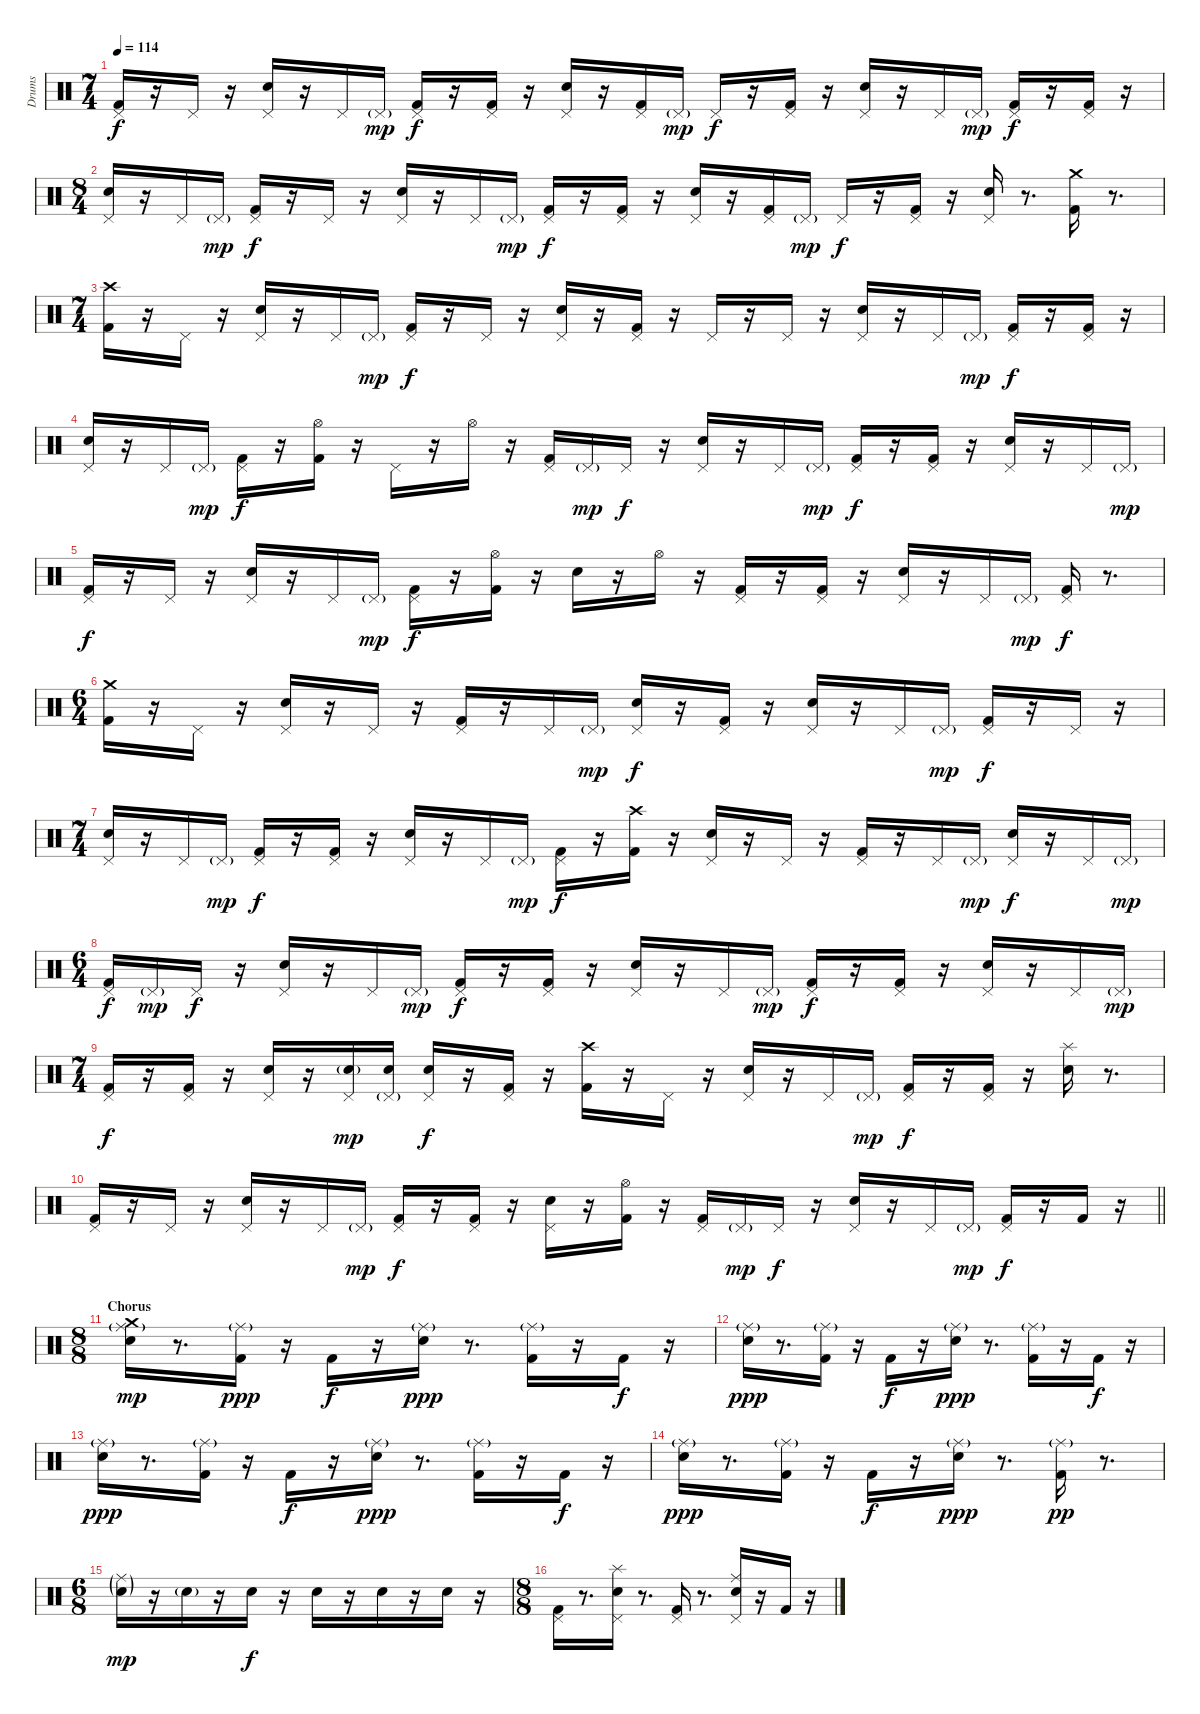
\track ("Drums" "Drums") {instrument percussion}
\staff {score}
\articulation defaults
\ts (7 4)
\tempo 114
\clef neutral
\ks c
("Pedal Hi-Hat (hit)" "Kick (hit) 2").16{dy f} r.16 "Pedal Hi-Hat (hit)".16 r.16 ("Pedal Hi-Hat (hit)" "Snare (hit) 2").16 r.16 "Pedal Hi-Hat (hit)".16 "Pedal Hi-Hat (hit)"{g}.16{dy mp} ("Pedal Hi-Hat (hit)" "Kick (hit) 2").16{dy f} r.16 ("Pedal Hi-Hat (hit)" "Kick (hit) 2").16 r.16 ("Pedal Hi-Hat (hit)" "Snare (hit) 2").16 r.16 ("Pedal Hi-Hat (hit)" "Kick (hit) 2").16 "Pedal Hi-Hat (hit)"{g}.16{dy mp} "Pedal Hi-Hat (hit)".16{dy f} r.16 ("Pedal Hi-Hat (hit)" "Kick (hit) 2").16 r.16 ("Pedal Hi-Hat (hit)" "Snare (hit) 2").16 r.16 "Pedal Hi-Hat (hit)".16 "Pedal Hi-Hat (hit)"{g}.16{dy mp} ("Pedal Hi-Hat (hit)" "Kick (hit) 2").16{dy f} r.16 ("Pedal Hi-Hat (hit)" "Kick (hit) 2").16 r.16 |
\ts (8 4)
("Pedal Hi-Hat (hit)" "Snare (hit) 2").16 r.16 "Pedal Hi-Hat (hit)".16 "Pedal Hi-Hat (hit)"{g}.16{dy mp} ("Pedal Hi-Hat (hit)" "Kick (hit) 2").16{dy f} r.16 "Pedal Hi-Hat (hit)".16 r.16 ("Pedal Hi-Hat (hit)" "Snare (hit) 2").16 r.16 "Pedal Hi-Hat (hit)".16 "Pedal Hi-Hat (hit)"{g}.16{dy mp} ("Pedal Hi-Hat (hit)" "Kick (hit) 2").16{dy f} r.16 ("Pedal Hi-Hat (hit)" "Kick (hit) 2").16 r.16 ("Pedal Hi-Hat (hit)" "Snare (hit) 2").16 r.16 ("Pedal Hi-Hat (hit)" "Kick (hit) 2").16 "Pedal Hi-Hat (hit)"{g}.16{dy mp} "Pedal Hi-Hat (hit)".16{dy f} r.16 ("Pedal Hi-Hat (hit)" "Kick (hit) 2").16 r.16 ("Pedal Hi-Hat (hit)" "Snare (hit) 2").16 r.8{d} ("Crash medium (hit)" "Kick (hit) 2").16 r.8{d} |
\ts (7 4)
("Crash high (hit)" "Kick (hit) 2").16 r.16 "Pedal Hi-Hat (hit)".16 r.16 ("Pedal Hi-Hat (hit)" "Snare (hit) 2").16 r.16 "Pedal Hi-Hat (hit)".16 "Pedal Hi-Hat (hit)"{g}.16{dy mp} ("Pedal Hi-Hat (hit)" "Kick (hit) 2").16{dy f} r.16 "Pedal Hi-Hat (hit)".16 r.16 ("Pedal Hi-Hat (hit)" "Snare (hit) 2").16 r.16 ("Pedal Hi-Hat (hit)" "Kick (hit) 2").16 r.16 "Pedal Hi-Hat (hit)".16 r.16 "Pedal Hi-Hat (hit)".16 r.16 ("Pedal Hi-Hat (hit)" "Snare (hit) 2").16 r.16 "Pedal Hi-Hat (hit)".16 "Pedal Hi-Hat (hit)"{g}.16{dy mp} ("Pedal Hi-Hat (hit)" "Kick (hit) 2").16{dy f} r.16 ("Pedal Hi-Hat (hit)" "Kick (hit) 2").16 r.16 |
("Pedal Hi-Hat (hit)" "Snare (hit) 2").16 r.16 "Pedal Hi-Hat (hit)".16 "Pedal Hi-Hat (hit)"{g}.16{dy mp} ("Pedal Hi-Hat (hit)" "Kick (hit) 2").16{dy f} r.16 ("Hi-Hat (open)" "Kick (hit) 2").16 r.16 "Pedal Hi-Hat (hit)".16 r.16 "Hi-Hat (open)".16 r.16 ("Pedal Hi-Hat (hit)" "Kick (hit) 2").16 "Pedal Hi-Hat (hit)"{g}.16{dy mp} "Pedal Hi-Hat (hit)".16{dy f} r.16 ("Pedal Hi-Hat (hit)" "Snare (hit) 2").16 r.16 "Pedal Hi-Hat (hit)".16 "Pedal Hi-Hat (hit)"{g}.16{dy mp} ("Pedal Hi-Hat (hit)" "Kick (hit) 2").16{dy f} r.16 ("Pedal Hi-Hat (hit)" "Kick (hit) 2").16 r.16 ("Pedal Hi-Hat (hit)" "Snare (hit) 2").16 r.16 "Pedal Hi-Hat (hit)".16 "Pedal Hi-Hat (hit)"{g}.16{dy mp} |
("Pedal Hi-Hat (hit)" "Kick (hit) 2").16{dy f} r.16 "Pedal Hi-Hat (hit)".16 r.16 ("Pedal Hi-Hat (hit)" "Snare (hit) 2").16 r.16 "Pedal Hi-Hat (hit)".16 "Pedal Hi-Hat (hit)"{g}.16{dy mp} ("Pedal Hi-Hat (hit)" "Kick (hit) 2").16{dy f} r.16 ("Hi-Hat (open)" "Kick (hit) 2").16 r.16 "Snare (hit) 2".16 r.16 "Hi-Hat (open)".16 r.16 ("Pedal Hi-Hat (hit)" "Kick (hit) 2").16 r.16 ("Pedal Hi-Hat (hit)" "Kick (hit) 2").16 r.16 ("Pedal Hi-Hat (hit)" "Snare (hit) 2").16 r.16 "Pedal Hi-Hat (hit)".16 "Pedal Hi-Hat (hit)"{g}.16{dy mp} ("Pedal Hi-Hat (hit)" "Kick (hit) 2").16{dy f} r.8{d} |
\ts (6 4)
("Crash medium (hit)" "Kick (hit) 2").16 r.16 "Pedal Hi-Hat (hit)".16 r.16 ("Pedal Hi-Hat (hit)" "Snare (hit) 2").16 r.16 "Pedal Hi-Hat (hit)".16 r.16 ("Pedal Hi-Hat (hit)" "Kick (hit) 2").16 r.16 "Pedal Hi-Hat (hit)".16 "Pedal Hi-Hat (hit)"{g}.16{dy mp} ("Pedal Hi-Hat (hit)" "Snare (hit) 2").16{dy f} r.16 ("Pedal Hi-Hat (hit)" "Kick (hit) 2").16 r.16 ("Pedal Hi-Hat (hit)" "Snare (hit) 2").16 r.16 "Pedal Hi-Hat (hit)".16 "Pedal Hi-Hat (hit)"{g}.16{dy mp} ("Pedal Hi-Hat (hit)" "Kick (hit) 2").16{dy f} r.16 "Pedal Hi-Hat (hit)".16 r.16 |
\ts (7 4)
("Pedal Hi-Hat (hit)" "Snare (hit) 2").16 r.16 "Pedal Hi-Hat (hit)".16 "Pedal Hi-Hat (hit)"{g}.16{dy mp} ("Pedal Hi-Hat (hit)" "Kick (hit) 2").16{dy f} r.16 ("Pedal Hi-Hat (hit)" "Kick (hit) 2").16 r.16 ("Pedal Hi-Hat (hit)" "Snare (hit) 2").16 r.16 "Pedal Hi-Hat (hit)".16 "Pedal Hi-Hat (hit)"{g}.16{dy mp} ("Pedal Hi-Hat (hit)" "Kick (hit) 2").16{dy f} r.16 ("Crash high (hit)" "Kick (hit) 2").16 r.16 ("Pedal Hi-Hat (hit)" "Snare (hit) 2").16 r.16 "Pedal Hi-Hat (hit)".16 r.16 ("Pedal Hi-Hat (hit)" "Kick (hit) 2").16 r.16 "Pedal Hi-Hat (hit)".16 "Pedal Hi-Hat (hit)"{g}.16{dy mp} ("Pedal Hi-Hat (hit)" "Snare (hit) 2").16{dy f} r.16 "Pedal Hi-Hat (hit)".16 "Pedal Hi-Hat (hit)"{g}.16{dy mp} |
\ts (6 4)
("Pedal Hi-Hat (hit)" "Kick (hit) 2").16{dy f} "Pedal Hi-Hat (hit)"{g}.16{dy mp} "Pedal Hi-Hat (hit)".16{dy f} r.16 ("Pedal Hi-Hat (hit)" "Snare (hit) 2").16 r.16 "Pedal Hi-Hat (hit)".16 "Pedal Hi-Hat (hit)"{g}.16{dy mp} ("Pedal Hi-Hat (hit)" "Kick (hit) 2").16{dy f} r.16 ("Pedal Hi-Hat (hit)" "Kick (hit) 2").16 r.16 ("Pedal Hi-Hat (hit)" "Snare (hit) 2").16 r.16 "Pedal Hi-Hat (hit)".16 "Pedal Hi-Hat (hit)"{g}.16{dy mp} ("Pedal Hi-Hat (hit)" "Kick (hit) 2").16{dy f} r.16 ("Pedal Hi-Hat (hit)" "Kick (hit) 2").16 r.16 ("Pedal Hi-Hat (hit)" "Snare (hit) 2").16 r.16 "Pedal Hi-Hat (hit)".16 "Pedal Hi-Hat (hit)"{g}.16{dy mp} |
\ts (7 4)
("Pedal Hi-Hat (hit)" "Kick (hit) 2").16{dy f} r.16 ("Pedal Hi-Hat (hit)" "Kick (hit) 2").16 r.16 ("Pedal Hi-Hat (hit)" "Snare (hit) 2").16 r.16 ("Pedal Hi-Hat (hit)" "Snare (hit) 2"{g}).16{dy mp} ("Pedal Hi-Hat (hit)"{g} "Snare (hit) 2").16 ("Pedal Hi-Hat (hit)" "Snare (hit) 2").16{dy f} r.16 ("Pedal Hi-Hat (hit)" "Kick (hit) 2").16 r.16 ("Crash high (hit)" "Kick (hit) 2").16 r.16 "Pedal Hi-Hat (hit)".16 r.16 ("Pedal Hi-Hat (hit)" "Snare (hit) 2").16 r.16 "Pedal Hi-Hat (hit)".16 "Pedal Hi-Hat (hit)"{g}.16{dy mp} ("Pedal Hi-Hat (hit)" "Kick (hit) 2").16{dy f} r.16 ("Pedal Hi-Hat (hit)" "Kick (hit) 2").16 r.16 ("Splash (hit)" "Snare (hit) 2").16 r.8{d} |
\barLineRight lightlight
("Pedal Hi-Hat (hit)" "Kick (hit) 2").16 r.16 "Pedal Hi-Hat (hit)".16 r.16 ("Pedal Hi-Hat (hit)" "Snare (hit) 2").16 r.16 "Pedal Hi-Hat (hit)".16 "Pedal Hi-Hat (hit)"{g}.16{dy mp} ("Pedal Hi-Hat (hit)" "Kick (hit) 2").16{dy f} r.16 ("Pedal Hi-Hat (hit)" "Kick (hit) 2").16 r.16 ("Pedal Hi-Hat (hit)" "Snare (hit) 2").16 r.16 ("Hi-Hat (open)" "Kick (hit) 2").16 r.16 ("Pedal Hi-Hat (hit)" "Kick (hit) 2").16 "Pedal Hi-Hat (hit)"{g}.16{dy mp} "Pedal Hi-Hat (hit)".16{dy f} r.16 ("Pedal Hi-Hat (hit)" "Snare (hit) 2").16 r.16 "Pedal Hi-Hat (hit)".16 "Pedal Hi-Hat (hit)"{g}.16{dy mp} ("Pedal Hi-Hat (hit)" "Kick (hit) 2").16{dy f} r.16 "Kick (hit) 2".16 r.16 |
\ts (8 8)
\section ("" "Chorus")
("Crash medium (hit)" "Ride (middle)"{g} "Snare (hit) 2").16{dy mp} r.8{d} ("Ride (middle)"{g} "Kick (hit) 2").16{dy ppp} r.16 "Kick (hit) 2".16{dy f} r.16 ("Ride (middle)"{g} "Snare (hit) 2").16{dy ppp} r.8{d} ("Ride (middle)"{g} "Kick (hit) 2").16 r.16 "Kick (hit) 2".16{dy f} r.16 |
("Ride (middle)"{g} "Snare (hit) 2").16{dy ppp} r.8{d} ("Ride (middle)"{g} "Kick (hit) 2").16 r.16 "Kick (hit) 2".16{dy f} r.16 ("Ride (middle)"{g} "Snare (hit) 2").16{dy ppp} r.8{d} ("Ride (middle)"{g} "Kick (hit) 2").16 r.16 "Kick (hit) 2".16{dy f} r.16 |
("Ride (middle)"{g} "Snare (hit) 2").16{dy ppp} r.8{d} ("Ride (middle)"{g} "Kick (hit) 2").16 r.16 "Kick (hit) 2".16{dy f} r.16 ("Ride (middle)"{g} "Snare (hit) 2").16{dy ppp} r.8{d} ("Ride (middle)"{g} "Kick (hit) 2").16 r.16 "Kick (hit) 2".16{dy f} r.16 |
("Ride (middle)"{g} "Snare (hit) 2").16{dy ppp} r.8{d} ("Ride (middle)"{g} "Kick (hit) 2").16 r.16 "Kick (hit) 2".16{dy f} r.16 ("Ride (middle)"{g} "Snare (hit) 2").16{dy ppp} r.8{d} ("Ride (middle)"{g} "Kick (hit) 2").16{dy pp} r.8{d} |
\ts (6 8)
("Ride (middle)"{g} "Snare (hit) 2"{g}).16{dy mp} r.16 "Snare (hit) 2"{g}.16 r.16 "Snare (hit) 2".16{dy f} r.16 "Snare (hit) 2".16 r.16 "Snare (hit) 2".16 r.16 "Snare (hit) 2".16 r.16 |
\ts (8 8)
("Pedal Hi-Hat (hit)" "Kick (hit) 2").16 r.8{d} ("Splash (hit)" "Pedal Hi-Hat (hit)" "Snare (hit) 2").16 r.8{d} ("Pedal Hi-Hat (hit)" "Kick (hit) 2").16 r.8{d} ("Ride (middle)" "Pedal Hi-Hat (hit)" "Snare (hit) 2").16 r.16 "Kick (hit) 2".16 r.16
